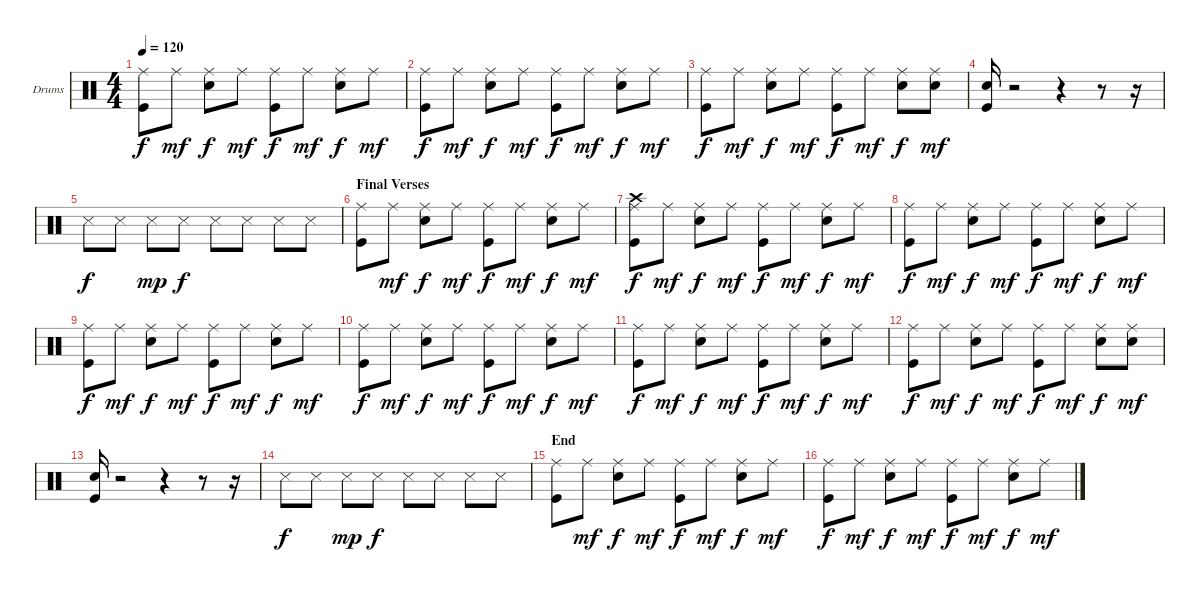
\bracketExtendMode groupsimilarinstruments
\firstSystemTrackNameOrientation horizontal
\otherSystemsTrackNameOrientation horizontal
\chordDiagramsInScore
\track ("Drumkit" "Drums") {instrument percussion}
\staff {score}
\articulation defaults
\ts (4 4)
\tempo 120
\clef neutral
\ks c
("Ride (middle)" "Kick (hit)").8{dy f} "Ride (middle)".8{dy mf} ("Ride (middle)" "Snare (hit) 2").8{dy f} "Ride (middle)".8{dy mf} ("Ride (middle)" "Kick (hit)").8{dy f} "Ride (middle)".8{dy mf} ("Ride (middle)" "Snare (hit) 2").8{dy f} "Ride (middle)".8{dy mf} |
("Ride (middle)" "Kick (hit)").8{dy f} "Ride (middle)".8{dy mf} ("Ride (middle)" "Snare (hit) 2").8{dy f} "Ride (middle)".8{dy mf} ("Ride (middle)" "Kick (hit)").8{dy f} "Ride (middle)".8{dy mf} ("Ride (middle)" "Snare (hit) 2").8{dy f} "Ride (middle)".8{dy mf} |
("Ride (middle)" "Kick (hit)").8{dy f} "Ride (middle)".8{dy mf} ("Ride (middle)" "Snare (hit) 2").8{dy f} "Ride (middle)".8{dy mf} ("Ride (middle)" "Kick (hit)").8{dy f} "Ride (middle)".8{dy mf} ("Ride (middle)" "Snare (hit) 2").8{dy f} ("Ride (middle)" "Snare (hit) 2").8{dy mf} |
("Snare (hit) 2" "Kick (hit)").16 r.2 r.4 r.8 r.16 |
"Snare (side stick) 3".8{dy f} "Snare (side stick) 3".8 "Snare (side stick) 3".8{dy mp} "Snare (side stick) 3".8{dy f} "Snare (side stick) 3".8 "Snare (side stick) 3".8 "Snare (side stick) 3".8 "Snare (side stick) 3".8 |
\section ("" "Final Verses")
("Ride (middle)" "Kick (hit)").8 "Ride (middle)".8{dy mf} ("Ride (middle)" "Snare (hit) 2").8{dy f} "Ride (middle)".8{dy mf} ("Ride (middle)" "Kick (hit)").8{dy f} "Ride (middle)".8{dy mf} ("Ride (middle)" "Snare (hit) 2").8{dy f} "Ride (middle)".8{dy mf} |
("Ride (middle)" "Crash high (hit)" "Kick (hit)").8{dy f} "Ride (middle)".8{dy mf} ("Ride (middle)" "Snare (hit) 2").8{dy f} "Ride (middle)".8{dy mf} ("Ride (middle)" "Kick (hit)").8{dy f} "Ride (middle)".8{dy mf} ("Ride (middle)" "Snare (hit) 2").8{dy f} "Ride (middle)".8{dy mf} |
("Ride (middle)" "Kick (hit)").8{dy f} "Ride (middle)".8{dy mf} ("Ride (middle)" "Snare (hit) 2").8{dy f} "Ride (middle)".8{dy mf} ("Ride (middle)" "Kick (hit)").8{dy f} "Ride (middle)".8{dy mf} ("Ride (middle)" "Snare (hit) 2").8{dy f} "Ride (middle)".8{dy mf} |
("Ride (middle)" "Kick (hit)").8{dy f} "Ride (middle)".8{dy mf} ("Ride (middle)" "Snare (hit) 2").8{dy f} "Ride (middle)".8{dy mf} ("Ride (middle)" "Kick (hit)").8{dy f} "Ride (middle)".8{dy mf} ("Ride (middle)" "Snare (hit) 2").8{dy f} "Ride (middle)".8{dy mf} |
("Ride (middle)" "Kick (hit)").8{dy f} "Ride (middle)".8{dy mf} ("Ride (middle)" "Snare (hit) 2").8{dy f} "Ride (middle)".8{dy mf} ("Ride (middle)" "Kick (hit)").8{dy f} "Ride (middle)".8{dy mf} ("Ride (middle)" "Snare (hit) 2").8{dy f} "Ride (middle)".8{dy mf} |
("Ride (middle)" "Kick (hit)").8{dy f} "Ride (middle)".8{dy mf} ("Ride (middle)" "Snare (hit) 2").8{dy f} "Ride (middle)".8{dy mf} ("Ride (middle)" "Kick (hit)").8{dy f} "Ride (middle)".8{dy mf} ("Ride (middle)" "Snare (hit) 2").8{dy f} "Ride (middle)".8{dy mf} |
("Ride (middle)" "Kick (hit)").8{dy f} "Ride (middle)".8{dy mf} ("Ride (middle)" "Snare (hit) 2").8{dy f} "Ride (middle)".8{dy mf} ("Ride (middle)" "Kick (hit)").8{dy f} "Ride (middle)".8{dy mf} ("Ride (middle)" "Snare (hit) 2").8{dy f} ("Ride (middle)" "Snare (hit) 2").8{dy mf} |
("Snare (hit) 2" "Kick (hit)").16 r.2 r.4 r.8 r.16 |
"Snare (side stick) 3".8{dy f} "Snare (side stick) 3".8 "Snare (side stick) 3".8{dy mp} "Snare (side stick) 3".8{dy f} "Snare (side stick) 3".8 "Snare (side stick) 3".8 "Snare (side stick) 3".8 "Snare (side stick) 3".8 |
\section ("" "End")
("Ride (middle)" "Kick (hit)").8 "Ride (middle)".8{dy mf} ("Ride (middle)" "Snare (hit) 2").8{dy f} "Ride (middle)".8{dy mf} ("Ride (middle)" "Kick (hit)").8{dy f} "Ride (middle)".8{dy mf} ("Ride (middle)" "Snare (hit) 2").8{dy f} "Ride (middle)".8{dy mf} |
("Ride (middle)" "Kick (hit)").8{dy f} "Ride (middle)".8{dy mf} ("Ride (middle)" "Snare (hit) 2").8{dy f} "Ride (middle)".8{dy mf} ("Ride (middle)" "Kick (hit)").8{dy f} "Ride (middle)".8{dy mf} ("Ride (middle)" "Snare (hit) 2").8{dy f} "Ride (middle)".8{dy mf}
